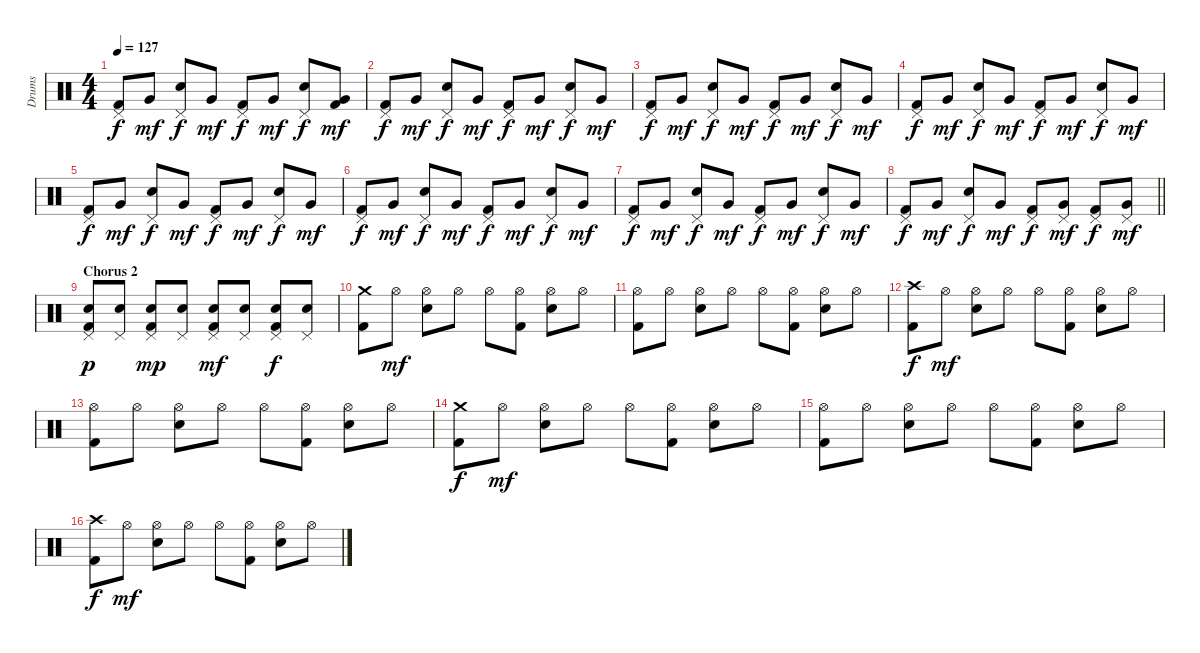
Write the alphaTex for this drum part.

\track ("Drums" "Drums") {instrument percussion}
\staff {score}
\articulation defaults
\ts (4 4)
\tempo 127
\clef neutral
\ks c
("Pedal Hi-Hat (hit)" "Kick (hit) 2").8{dy f} "Very Low Tom (hit)".8{dy mf} ("Pedal Hi-Hat (hit)" "Electric Snare (hit)").8{dy f} "Very Low Tom (hit)".8{dy mf} ("Pedal Hi-Hat (hit)" "Kick (hit) 2").8{dy f} "Very Low Tom (hit)".8{dy mf} ("Pedal Hi-Hat (hit)" "Electric Snare (hit)").8{dy f} ("Very Low Tom (hit)" "Kick (hit) 2").8{dy mf} |
("Pedal Hi-Hat (hit)" "Kick (hit) 2").8{dy f} "Very Low Tom (hit)".8{dy mf} ("Pedal Hi-Hat (hit)" "Electric Snare (hit)").8{dy f} "Very Low Tom (hit)".8{dy mf} ("Pedal Hi-Hat (hit)" "Kick (hit) 2").8{dy f} "Very Low Tom (hit)".8{dy mf} ("Pedal Hi-Hat (hit)" "Electric Snare (hit)").8{dy f} "Very Low Tom (hit)".8{dy mf} |
("Pedal Hi-Hat (hit)" "Kick (hit) 2").8{dy f} "Very Low Tom (hit)".8{dy mf} ("Pedal Hi-Hat (hit)" "Electric Snare (hit)").8{dy f} "Very Low Tom (hit)".8{dy mf} ("Pedal Hi-Hat (hit)" "Kick (hit) 2").8{dy f} "Very Low Tom (hit)".8{dy mf} ("Pedal Hi-Hat (hit)" "Electric Snare (hit)").8{dy f} "Very Low Tom (hit)".8{dy mf} |
("Pedal Hi-Hat (hit)" "Kick (hit) 2").8{dy f} "Very Low Tom (hit)".8{dy mf} ("Pedal Hi-Hat (hit)" "Electric Snare (hit)").8{dy f} "Very Low Tom (hit)".8{dy mf} ("Pedal Hi-Hat (hit)" "Kick (hit) 2").8{dy f} "Very Low Tom (hit)".8{dy mf} ("Pedal Hi-Hat (hit)" "Electric Snare (hit)").8{dy f} "Very Low Tom (hit)".8{dy mf} |
("Pedal Hi-Hat (hit)" "Kick (hit) 2").8{dy f} "Very Low Tom (hit)".8{dy mf} ("Pedal Hi-Hat (hit)" "Electric Snare (hit)").8{dy f} "Very Low Tom (hit)".8{dy mf} ("Pedal Hi-Hat (hit)" "Kick (hit) 2").8{dy f} "Very Low Tom (hit)".8{dy mf} ("Pedal Hi-Hat (hit)" "Electric Snare (hit)").8{dy f} "Very Low Tom (hit)".8{dy mf} |
("Pedal Hi-Hat (hit)" "Kick (hit) 2").8{dy f} "Very Low Tom (hit)".8{dy mf} ("Pedal Hi-Hat (hit)" "Electric Snare (hit)").8{dy f} "Very Low Tom (hit)".8{dy mf} ("Pedal Hi-Hat (hit)" "Kick (hit) 2").8{dy f} "Very Low Tom (hit)".8{dy mf} ("Pedal Hi-Hat (hit)" "Electric Snare (hit)").8{dy f} "Very Low Tom (hit)".8{dy mf} |
("Pedal Hi-Hat (hit)" "Kick (hit) 2").8{dy f} "Very Low Tom (hit)".8{dy mf} ("Pedal Hi-Hat (hit)" "Electric Snare (hit)").8{dy f} "Very Low Tom (hit)".8{dy mf} ("Pedal Hi-Hat (hit)" "Kick (hit) 2").8{dy f} "Very Low Tom (hit)".8{dy mf} ("Pedal Hi-Hat (hit)" "Electric Snare (hit)").8{dy f} "Very Low Tom (hit)".8{dy mf} |
\barLineRight lightlight
("Pedal Hi-Hat (hit)" "Kick (hit) 2").8{dy f} "Very Low Tom (hit)".8{dy mf} ("Pedal Hi-Hat (hit)" "Electric Snare (hit)").8{dy f} "Very Low Tom (hit)".8{dy mf} ("Pedal Hi-Hat (hit)" "Kick (hit) 2").8{dy f} ("Pedal Hi-Hat (hit)" "Very Low Tom (hit)").8{dy mf} ("Pedal Hi-Hat (hit)" "Kick (hit) 2").8{dy f} ("Pedal Hi-Hat (hit)" "Very Low Tom (hit)").8{dy mf} |
\section ("" "Chorus 2")
("Pedal Hi-Hat (hit)" "Snare (hit) 2" "Kick (hit) 2").8{dy p} ("Pedal Hi-Hat (hit)" "Snare (hit) 2").8 ("Pedal Hi-Hat (hit)" "Snare (hit) 2" "Kick (hit) 2").8{dy mp} ("Pedal Hi-Hat (hit)" "Snare (hit) 2").8 ("Pedal Hi-Hat (hit)" "Snare (hit) 2" "Kick (hit) 2").8{dy mf} ("Pedal Hi-Hat (hit)" "Snare (hit) 2").8 ("Pedal Hi-Hat (hit)" "Snare (hit) 2" "Kick (hit) 2").8{dy f} ("Pedal Hi-Hat (hit)" "Snare (hit) 2").8 |
("Crash medium (hit)" "Kick (hit) 2").8 "Hi-Hat (open)".8{dy mf} ("Hi-Hat (open)" "Snare (hit) 2").8 "Hi-Hat (open)".8 "Hi-Hat (open)".8 ("Hi-Hat (open)" "Kick (hit) 2").8 ("Hi-Hat (open)" "Snare (hit) 2").8 "Hi-Hat (open)".8 |
("Hi-Hat (open)" "Kick (hit) 2").8 "Hi-Hat (open)".8 ("Hi-Hat (open)" "Snare (hit) 2").8 "Hi-Hat (open)".8 "Hi-Hat (open)".8 ("Hi-Hat (open)" "Kick (hit) 2").8 ("Hi-Hat (open)" "Snare (hit) 2").8 "Hi-Hat (open)".8 |
("Crash high (hit)" "Kick (hit) 2").8{dy f} "Hi-Hat (open)".8{dy mf} ("Hi-Hat (open)" "Snare (hit) 2").8 "Hi-Hat (open)".8 "Hi-Hat (open)".8 ("Hi-Hat (open)" "Kick (hit) 2").8 ("Hi-Hat (open)" "Snare (hit) 2").8 "Hi-Hat (open)".8 |
("Hi-Hat (open)" "Kick (hit) 2").8 "Hi-Hat (open)".8 ("Hi-Hat (open)" "Snare (hit) 2").8 "Hi-Hat (open)".8 "Hi-Hat (open)".8 ("Hi-Hat (open)" "Kick (hit) 2").8 ("Hi-Hat (open)" "Snare (hit) 2").8 "Hi-Hat (open)".8 |
("Crash medium (hit)" "Kick (hit) 2").8{dy f} "Hi-Hat (open)".8{dy mf} ("Hi-Hat (open)" "Snare (hit) 2").8 "Hi-Hat (open)".8 "Hi-Hat (open)".8 ("Hi-Hat (open)" "Kick (hit) 2").8 ("Hi-Hat (open)" "Snare (hit) 2").8 "Hi-Hat (open)".8 |
("Hi-Hat (open)" "Kick (hit) 2").8 "Hi-Hat (open)".8 ("Hi-Hat (open)" "Snare (hit) 2").8 "Hi-Hat (open)".8 "Hi-Hat (open)".8 ("Hi-Hat (open)" "Kick (hit) 2").8 ("Hi-Hat (open)" "Snare (hit) 2").8 "Hi-Hat (open)".8 |
("Crash high (hit)" "Kick (hit) 2").8{dy f} "Hi-Hat (open)".8{dy mf} ("Hi-Hat (open)" "Snare (hit) 2").8 "Hi-Hat (open)".8 "Hi-Hat (open)".8 ("Hi-Hat (open)" "Kick (hit) 2").8 ("Hi-Hat (open)" "Snare (hit) 2").8 "Hi-Hat (open)".8
